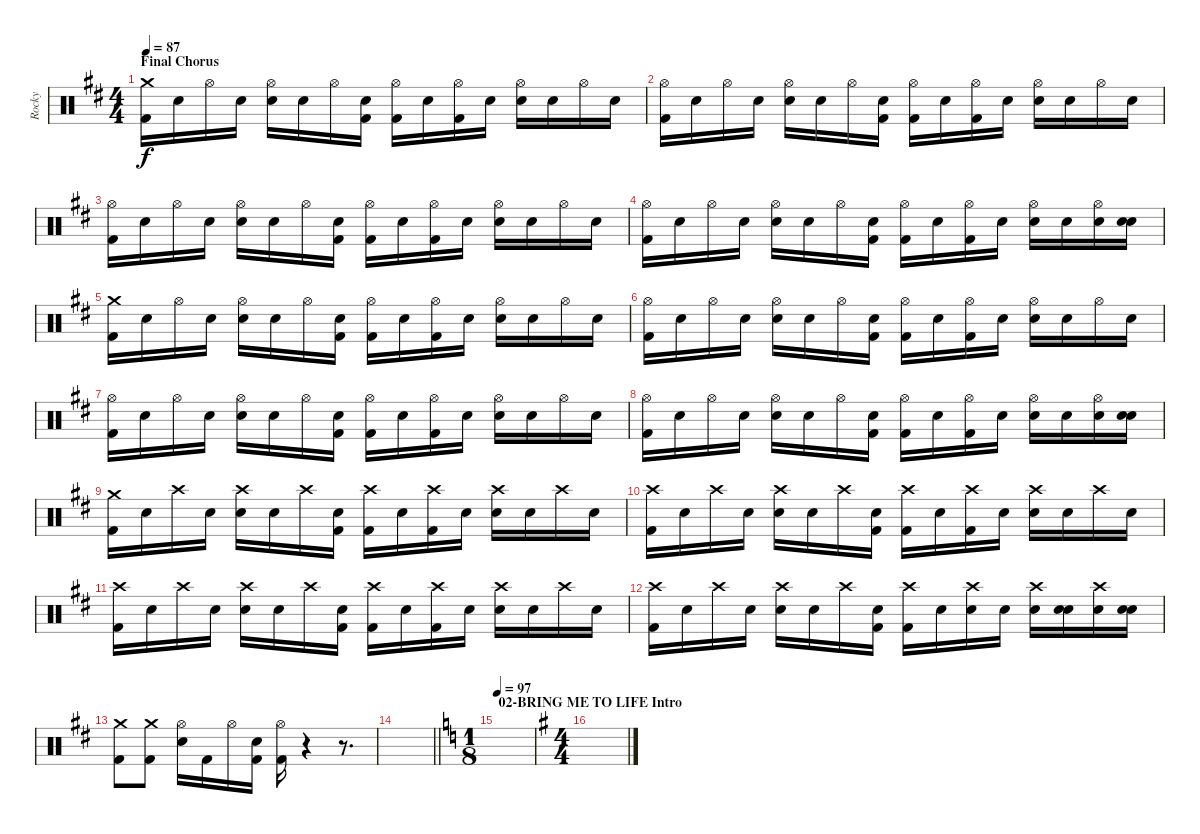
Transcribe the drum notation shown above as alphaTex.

\track ("Rocky" "Rocky") {instrument percussion}
\staff {score}
\articulation defaults
\ts (4 4)
\section ("" "Final Chorus")
\tempo 87
\clef neutral
\ks d
("Crash medium (hit)" "Kick (hit) 2").16{dy f} "Snare (hit)".16 "Hi-Hat (open)".16 "Snare (hit)".16 ("Hi-Hat (open)" "Electric Snare (hit)").16 "Snare (hit)".16 "Hi-Hat (open)".16 ("Snare (hit)" "Kick (hit) 2").16 ("Hi-Hat (open)" "Kick (hit) 2").16 "Snare (hit)".16 ("Hi-Hat (open)" "Kick (hit) 2").16 "Snare (hit)".16 ("Hi-Hat (open)" "Electric Snare (hit)").16 "Snare (hit)".16 "Hi-Hat (open)".16 "Snare (hit)".16 |
("Hi-Hat (open)" "Kick (hit) 2").16 "Snare (hit)".16 "Hi-Hat (open)".16 "Snare (hit)".16 ("Hi-Hat (open)" "Electric Snare (hit)").16 "Snare (hit)".16 "Hi-Hat (open)".16 ("Snare (hit)" "Kick (hit) 2").16 ("Hi-Hat (open)" "Kick (hit) 2").16 "Snare (hit)".16 ("Hi-Hat (open)" "Kick (hit) 2").16 "Snare (hit)".16 ("Hi-Hat (open)" "Electric Snare (hit)").16 "Snare (hit)".16 "Hi-Hat (open)".16 "Snare (hit)".16 |
("Hi-Hat (open)" "Kick (hit) 2").16 "Snare (hit)".16 "Hi-Hat (open)".16 "Snare (hit)".16 ("Hi-Hat (open)" "Electric Snare (hit)").16 "Snare (hit)".16 "Hi-Hat (open)".16 ("Snare (hit)" "Kick (hit) 2").16 ("Hi-Hat (open)" "Kick (hit) 2").16 "Snare (hit)".16 ("Hi-Hat (open)" "Kick (hit) 2").16 "Snare (hit)".16 ("Hi-Hat (open)" "Electric Snare (hit)").16 "Snare (hit)".16 "Hi-Hat (open)".16 "Snare (hit)".16 |
("Hi-Hat (open)" "Kick (hit) 2").16 "Snare (hit)".16 "Hi-Hat (open)".16 "Snare (hit)".16 ("Hi-Hat (open)" "Electric Snare (hit)").16 "Snare (hit)".16 "Hi-Hat (open)".16 ("Snare (hit)" "Kick (hit) 2").16 ("Hi-Hat (open)" "Kick (hit) 2").16 "Snare (hit)".16 ("Hi-Hat (open)" "Kick (hit) 2").16 "Snare (hit)".16 ("Hi-Hat (open)" "Electric Snare (hit)").16 "Snare (hit)".16 ("Hi-Hat (open)" "Electric Snare (hit)").16 ("Snare (hit)" "Electric Snare (hit)").16 |
("Crash medium (hit)" "Kick (hit) 2").16 "Snare (hit)".16 "Hi-Hat (open)".16 "Snare (hit)".16 ("Hi-Hat (open)" "Electric Snare (hit)").16 "Snare (hit)".16 "Hi-Hat (open)".16 ("Snare (hit)" "Kick (hit) 2").16 ("Hi-Hat (open)" "Kick (hit) 2").16 "Snare (hit)".16 ("Hi-Hat (open)" "Kick (hit) 2").16 "Snare (hit)".16 ("Hi-Hat (open)" "Electric Snare (hit)").16 "Snare (hit)".16 "Hi-Hat (open)".16 "Snare (hit)".16 |
("Hi-Hat (open)" "Kick (hit) 2").16 "Snare (hit)".16 "Hi-Hat (open)".16 "Snare (hit)".16 ("Hi-Hat (open)" "Electric Snare (hit)").16 "Snare (hit)".16 "Hi-Hat (open)".16 ("Snare (hit)" "Kick (hit) 2").16 ("Hi-Hat (open)" "Kick (hit) 2").16 "Snare (hit)".16 ("Hi-Hat (open)" "Kick (hit) 2").16 "Snare (hit)".16 ("Hi-Hat (open)" "Electric Snare (hit)").16 "Snare (hit)".16 "Hi-Hat (open)".16 "Snare (hit)".16 |
("Hi-Hat (open)" "Kick (hit) 2").16 "Snare (hit)".16 "Hi-Hat (open)".16 "Snare (hit)".16 ("Hi-Hat (open)" "Electric Snare (hit)").16 "Snare (hit)".16 "Hi-Hat (open)".16 ("Snare (hit)" "Kick (hit) 2").16 ("Hi-Hat (open)" "Kick (hit) 2").16 "Snare (hit)".16 ("Hi-Hat (open)" "Kick (hit) 2").16 "Snare (hit)".16 ("Hi-Hat (open)" "Electric Snare (hit)").16 "Snare (hit)".16 "Hi-Hat (open)".16 "Snare (hit)".16 |
("Hi-Hat (open)" "Kick (hit) 2").16 "Snare (hit)".16 "Hi-Hat (open)".16 "Snare (hit)".16 ("Hi-Hat (open)" "Electric Snare (hit)").16 "Snare (hit)".16 "Hi-Hat (open)".16 ("Snare (hit)" "Kick (hit) 2").16 ("Hi-Hat (open)" "Kick (hit) 2").16 "Snare (hit)".16 ("Hi-Hat (open)" "Kick (hit) 2").16 "Snare (hit)".16 ("Hi-Hat (open)" "Electric Snare (hit)").16 "Snare (hit)".16 ("Hi-Hat (open)" "Electric Snare (hit)").16 ("Snare (hit)" "Electric Snare (hit)").16 |
("Crash medium (hit)" "Kick (hit) 2").16 "Snare (hit)".16 "Crash high (hit)".16 "Snare (hit)".16 ("Crash high (hit)" "Electric Snare (hit)").16 "Snare (hit)".16 "Crash high (hit)".16 ("Snare (hit)" "Kick (hit) 2").16 ("Crash high (hit)" "Kick (hit) 2").16 "Snare (hit)".16 ("Crash high (hit)" "Kick (hit) 2").16 "Snare (hit)".16 ("Crash high (hit)" "Electric Snare (hit)").16 "Snare (hit)".16 "Crash high (hit)".16 "Snare (hit)".16 |
("Crash high (hit)" "Kick (hit) 2").16 "Snare (hit)".16 "Crash high (hit)".16 "Snare (hit)".16 ("Crash high (hit)" "Electric Snare (hit)").16 "Snare (hit)".16 "Crash high (hit)".16 ("Snare (hit)" "Kick (hit) 2").16 ("Crash high (hit)" "Kick (hit) 2").16 "Snare (hit)".16 ("Crash high (hit)" "Kick (hit) 2").16 "Snare (hit)".16 ("Crash high (hit)" "Electric Snare (hit)").16 "Snare (hit)".16 "Crash high (hit)".16 "Snare (hit)".16 |
("Crash high (hit)" "Kick (hit) 2").16 "Snare (hit)".16 "Crash high (hit)".16 "Snare (hit)".16 ("Crash high (hit)" "Electric Snare (hit)").16 "Snare (hit)".16 "Crash high (hit)".16 ("Snare (hit)" "Kick (hit) 2").16 ("Crash high (hit)" "Kick (hit) 2").16 "Snare (hit)".16 ("Crash high (hit)" "Kick (hit) 2").16 "Snare (hit)".16 ("Crash high (hit)" "Electric Snare (hit)").16 "Snare (hit)".16 "Crash high (hit)".16 "Snare (hit)".16 |
("Crash high (hit)" "Kick (hit) 2").16 "Snare (hit)".16 "Crash high (hit)".16 "Snare (hit)".16 ("Crash high (hit)" "Electric Snare (hit)").16 "Snare (hit)".16 "Crash high (hit)".16 ("Snare (hit)" "Kick (hit) 2").16 ("Crash high (hit)" "Kick (hit) 2").16 "Snare (hit)".16 ("Crash high (hit)" "Electric Snare (hit)").16 "Snare (hit)".16 ("Crash high (hit)" "Electric Snare (hit)").16 ("Snare (hit)" "Electric Snare (hit)").16 ("Crash high (hit)" "Electric Snare (hit)").16 ("Snare (hit)" "Electric Snare (hit)").16 |
("Crash medium (hit)" "Kick (hit) 2").8 ("Crash medium (hit)" "Kick (hit) 2").8 ("Hi-Hat (open)" "Electric Snare (hit)").16 "Kick (hit) 2".16 "Hi-Hat (open)".16 ("Electric Snare (hit)" "Kick (hit) 2").16 ("Hi-Hat (open)" "Kick (hit) 2").16 r.4 r.8{d} |
\barLineRight lightlight
|
\ts (1 8)
\section ("" "02-BRING ME TO LIFE Intro")
\tempo 97
\ks c
|
\ts (4 4)
\ks g
